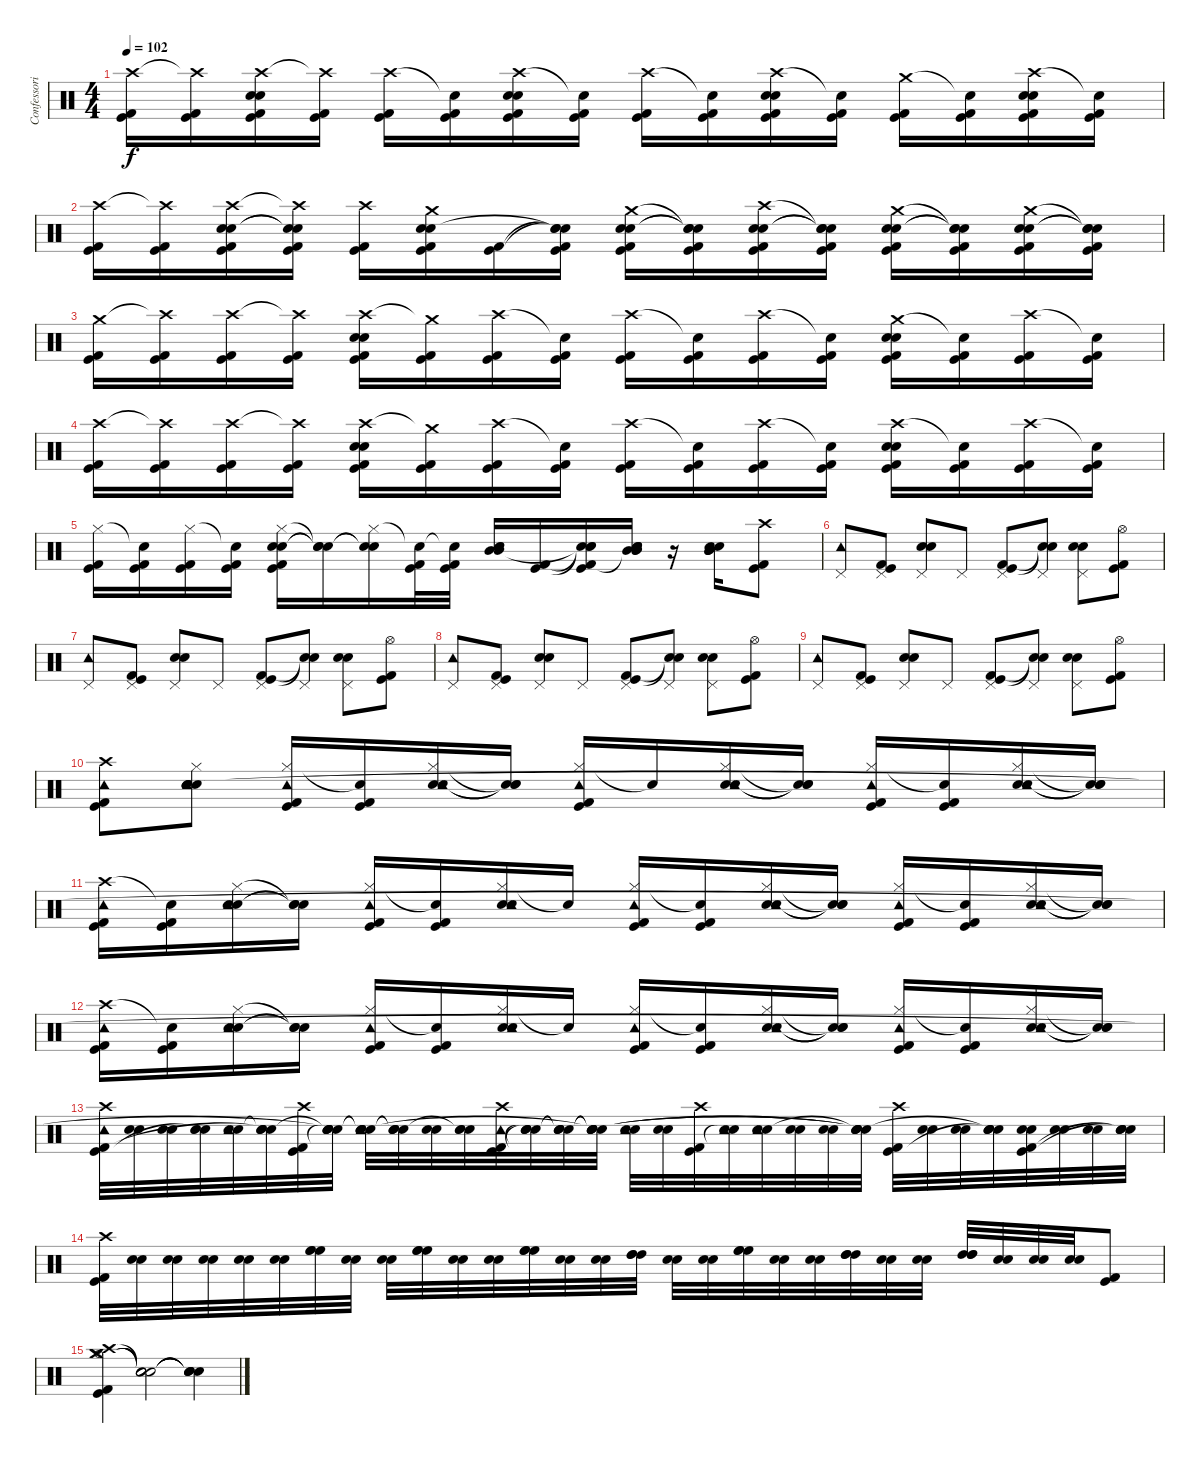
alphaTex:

\track ("Confessori" "Confessori") {instrument percussion}
\staff {score}
\articulation defaults
\ts (4 4)
\tempo 102
\clef neutral
\ks c
("Crash high (hit)" "Kick (hit) 2" "Kick (hit)").16{dy f} ("Crash high (hit)"{t} "Kick (hit) 2" "Kick (hit)").16 ("Crash high (hit)" "Electric Snare (hit)" "Snare (hit) 2" "Kick (hit) 2" "Kick (hit)").16 ("Crash high (hit)"{t} "Kick (hit) 2" "Kick (hit)").16 ("Crash high (hit)" "Kick (hit) 2" "Kick (hit)").16 ("Snare (hit)"{t} "Kick (hit) 2" "Kick (hit)").16 ("Crash high (hit)" "Electric Snare (hit)" "Snare (hit) 2" "Kick (hit) 2" "Kick (hit)").16 ("Snare (hit)"{t} "Kick (hit) 2" "Kick (hit)").16 ("Crash high (hit)" "Kick (hit) 2" "Kick (hit)").16 ("Snare (hit)"{t} "Kick (hit) 2" "Kick (hit)").16 ("Crash high (hit)" "Electric Snare (hit)" "Snare (hit) 2" "Kick (hit) 2" "Kick (hit)").16 ("Snare (hit)"{t} "Kick (hit) 2" "Kick (hit)").16 ("Crash medium (hit)" "Kick (hit) 2" "Kick (hit)").16 ("Snare (hit)"{t} "Kick (hit) 2" "Kick (hit)").16 ("Crash high (hit)" "Electric Snare (hit)" "Snare (hit) 2" "Kick (hit) 2" "Kick (hit)").16 ("Snare (hit)"{t} "Kick (hit) 2" "Kick (hit)").16 |
("Crash high (hit)" "Kick (hit) 2" "Kick (hit)").16 ("Crash high (hit)"{t} "Kick (hit) 2" "Kick (hit)").16 ("Crash high (hit)" "Electric Snare (hit)" "Snare (hit) 2" "Kick (hit) 2" "Kick (hit)").16 ("Crash high (hit)"{t} "Snare (hit)"{t} "Snare (hit)"{t} "Kick (hit) 2" "Kick (hit)").16 ("Crash high (hit)" "Kick (hit) 2" "Kick (hit)").16 ("Crash medium (hit)" "Electric Snare (hit)" "Snare (hit) 2" "Kick (hit) 2" "Kick (hit)").16 ("Kick (hit) 2" "Kick (hit)").16 ("Snare (hit)"{t} "Snare (hit)"{t} "Snare (hit)"{t} "Kick (hit) 2" "Kick (hit)").16 ("Crash medium (hit)" "Electric Snare (hit)" "Snare (hit) 2" "Kick (hit) 2" "Kick (hit)").16 ("Snare (hit)"{t} "Snare (hit)"{t} "Snare (hit)"{t} "Kick (hit) 2" "Kick (hit)").16 ("Crash high (hit)" "Electric Snare (hit)" "Snare (hit) 2" "Kick (hit) 2" "Kick (hit)").16 ("Snare (hit)"{t} "Snare (hit)"{t} "Snare (hit)"{t} "Kick (hit) 2" "Kick (hit)").16 ("Crash medium (hit)" "Electric Snare (hit)" "Snare (hit) 2" "Kick (hit) 2" "Kick (hit)").16 ("Snare (hit)"{t} "Snare (hit)"{t} "Snare (hit)"{t} "Kick (hit) 2" "Kick (hit)").16 ("Crash medium (hit)" "Electric Snare (hit)" "Snare (hit) 2" "Kick (hit) 2" "Kick (hit)").16 ("Snare (hit)"{t} "Snare (hit)"{t} "Snare (hit)"{t} "Kick (hit) 2" "Kick (hit)").16 |
("Crash medium (hit)" "Kick (hit) 2" "Kick (hit)").16 ("Crash high (hit)"{t} "Kick (hit) 2" "Kick (hit)").16 ("Crash high (hit)" "Kick (hit) 2" "Kick (hit)").16 ("Crash high (hit)"{t} "Kick (hit) 2" "Kick (hit)").16 ("Crash high (hit)" "Electric Snare (hit)" "Snare (hit) 2" "Kick (hit) 2" "Kick (hit)").16 ("Crash medium (hit)"{t} "Kick (hit) 2" "Kick (hit)").16 ("Crash high (hit)" "Kick (hit) 2" "Kick (hit)").16 ("Snare (hit)"{t} "Kick (hit) 2" "Kick (hit)").16 ("Crash high (hit)" "Kick (hit) 2" "Kick (hit)").16 ("Snare (hit)"{t} "Kick (hit) 2" "Kick (hit)").16 ("Crash high (hit)" "Kick (hit) 2" "Kick (hit)").16 ("Snare (hit)"{t} "Kick (hit) 2" "Kick (hit)").16 ("Crash medium (hit)" "Electric Snare (hit)" "Snare (hit) 2" "Kick (hit) 2" "Kick (hit)").16 ("Snare (hit)"{t} "Kick (hit) 2" "Kick (hit)").16 ("Crash high (hit)" "Kick (hit) 2" "Kick (hit)").16 ("Snare (hit)"{t} "Kick (hit) 2" "Kick (hit)").16 |
("Crash high (hit)" "Kick (hit) 2" "Kick (hit)").16 ("Crash high (hit)"{t} "Kick (hit) 2" "Kick (hit)").16 ("Crash high (hit)" "Kick (hit) 2" "Kick (hit)").16 ("Crash high (hit)"{t} "Kick (hit) 2" "Kick (hit)").16 ("Crash high (hit)" "Electric Snare (hit)" "Snare (hit) 2" "Kick (hit) 2" "Kick (hit)").16 ("Crash medium (hit)"{t} "Kick (hit) 2" "Kick (hit)").16 ("Crash high (hit)" "Kick (hit) 2" "Kick (hit)").16 ("Snare (hit)"{t} "Kick (hit) 2" "Kick (hit)").16 ("Crash high (hit)" "Kick (hit) 2" "Kick (hit)").16 ("Snare (hit)"{t} "Kick (hit) 2" "Kick (hit)").16 ("Crash high (hit)" "Kick (hit) 2" "Kick (hit)").16 ("Snare (hit)"{t} "Kick (hit) 2" "Kick (hit)").16 ("Crash high (hit)" "Electric Snare (hit)" "Snare (hit) 2" "Kick (hit) 2" "Kick (hit)").16 ("Snare (hit)"{t} "Kick (hit) 2" "Kick (hit)").16 ("Crash high (hit)" "Kick (hit) 2" "Kick (hit)").16 ("Snare (hit)"{t} "Kick (hit) 2" "Kick (hit)").16 |
("Hi-Hat (closed)" "Kick (hit)" "Kick (hit) 2").16 ("Snare (hit)"{t} "Kick (hit)" "Kick (hit) 2").16 ("Hi-Hat (closed)" "Kick (hit)" "Kick (hit) 2").16 ("Snare (hit)"{t} "Kick (hit)" "Kick (hit) 2").16 ("Hi-Hat (closed)" "Electric Snare (hit)" "Snare (hit) 2" "Kick (hit)" "Kick (hit) 2").16 ("Snare (hit)"{t} "Snare (hit)"{t} "Snare (hit)"{t}).16 ("Hi-Hat (closed)" "Snare (hit)"{t} "Snare (hit)"{t}).16 ("Snare (hit)"{t} "Kick (hit) 2" "Kick (hit)").32 ("Snare (hit)"{t} "Kick (hit) 2" "Kick (hit)").32 ("Electric Snare (hit)" "Snare (hit) 2" "Mid Tom (hit)" "Mid Tom (hit)").16 ("Kick (hit) 2" "Kick (hit)").16 ("Snare (hit)"{t} "Snare (hit)"{t} "Snare (hit)"{t} "Kick (hit)" "Kick (hit) 2").16 ("Mid Tom (hit)" "Electric Snare (hit)" "Snare (hit) 2" "Mid Tom (hit)" "Mid Tom (hit)"{t} "Snare (hit)").16 r.16 ("Electric Snare (hit)" "Snare (hit) 2" "Mid Tom (hit)" "Mid Tom (hit)" "Mid Tom (hit)").16 ("Crash high (hit)" "Kick (hit) 2" "Kick (hit)").8 |
("Pedal Hi-Hat (hit)" "Tambourine (hit)").8 ("Pedal Hi-Hat (hit)" "Kick (hit) 2" "Kick (hit)").8 ("Pedal Hi-Hat (hit)" "Electric Snare (hit)" "Snare (hit) 2").8 "Pedal Hi-Hat (hit)".8 ("Pedal Hi-Hat (hit)" "Kick (hit) 2" "Kick (hit)").8 ("Pedal Hi-Hat (hit)" "Snare (hit)"{t} "Snare (hit)"{t}).8 ("Pedal Hi-Hat (hit)" "Electric Snare (hit)" "Snare (hit) 2").8 ("Hi-Hat (open)" "Kick (hit)" "Kick (hit) 2").8 |
("Pedal Hi-Hat (hit)" "Tambourine (hit)").8 ("Pedal Hi-Hat (hit)" "Kick (hit) 2" "Kick (hit)").8 ("Pedal Hi-Hat (hit)" "Electric Snare (hit)" "Snare (hit) 2").8 "Pedal Hi-Hat (hit)".8 ("Pedal Hi-Hat (hit)" "Kick (hit) 2" "Kick (hit)").8 ("Pedal Hi-Hat (hit)" "Snare (hit)"{t} "Snare (hit)"{t}).8 ("Pedal Hi-Hat (hit)" "Electric Snare (hit)" "Snare (hit) 2").8 ("Hi-Hat (open)" "Kick (hit)" "Kick (hit) 2").8 |
("Pedal Hi-Hat (hit)" "Tambourine (hit)").8 ("Pedal Hi-Hat (hit)" "Kick (hit) 2" "Kick (hit)").8 ("Pedal Hi-Hat (hit)" "Electric Snare (hit)" "Snare (hit) 2").8 "Pedal Hi-Hat (hit)".8 ("Pedal Hi-Hat (hit)" "Kick (hit) 2" "Kick (hit)").8 ("Pedal Hi-Hat (hit)" "Snare (hit)"{t} "Snare (hit)"{t}).8 ("Pedal Hi-Hat (hit)" "Electric Snare (hit)" "Snare (hit) 2").8 ("Hi-Hat (open)" "Kick (hit)" "Kick (hit) 2").8 |
("Pedal Hi-Hat (hit)" "Tambourine (hit)").8 ("Pedal Hi-Hat (hit)" "Kick (hit) 2" "Kick (hit)").8 ("Pedal Hi-Hat (hit)" "Electric Snare (hit)" "Snare (hit) 2").8 "Pedal Hi-Hat (hit)".8 ("Pedal Hi-Hat (hit)" "Kick (hit) 2" "Kick (hit)").8 ("Pedal Hi-Hat (hit)" "Snare (hit)"{t} "Snare (hit)"{t}).8 ("Pedal Hi-Hat (hit)" "Electric Snare (hit)" "Snare (hit) 2").8 ("Hi-Hat (open)" "Kick (hit)" "Kick (hit) 2").8 |
("Crash high (hit)" "Tambourine (hit)" "Kick (hit) 2" "Kick (hit)").8 ("Hi-Hat (closed)" "Electric Snare (hit)" "Snare (hit) 2" "Tambourine (hit)" "Snare (hit)" "Snare (hit)").8 ("Hi-Hat (closed)" "Tambourine (hit)" "Kick (hit) 2" "Kick (hit)").16 ("Snare (hit)"{t} "Kick (hit) 2" "Kick (hit)").16 ("Hi-Hat (closed)" "Electric Snare (hit)" "Snare (hit) 2" "Tambourine (hit)").16 ("Snare (hit)"{t} "Snare (hit)"{t} "Snare (hit)"{t}).16 ("Hi-Hat (closed)" "Tambourine (hit)" "Kick (hit) 2" "Kick (hit)").16 "Snare (hit)"{t}.16 ("Hi-Hat (closed)" "Electric Snare (hit)" "Snare (hit) 2" "Tambourine (hit)").16 ("Snare (hit)"{t} "Snare (hit)"{t} "Snare (hit)"{t}).16 ("Hi-Hat (closed)" "Tambourine (hit)" "Kick (hit) 2" "Kick (hit)").16 ("Snare (hit)"{t} "Kick (hit) 2" "Kick (hit)").16 ("Hi-Hat (closed)" "Electric Snare (hit)" "Snare (hit) 2" "Tambourine (hit)").16 ("Snare (hit)"{t} "Snare (hit)"{t} "Snare (hit)"{t}).16 |
("Crash high (hit)" "Tambourine (hit)" "Kick (hit) 2" "Kick (hit)").16 ("Snare (hit)"{t} "Kick (hit) 2" "Kick (hit)").16 ("Hi-Hat (closed)" "Electric Snare (hit)" "Snare (hit) 2" "Tambourine (hit)").16 ("Snare (hit)"{t} "Snare (hit)"{t} "Snare (hit)"{t}).16 ("Hi-Hat (closed)" "Tambourine (hit)" "Kick (hit) 2" "Kick (hit)").16 ("Snare (hit)"{t} "Kick (hit) 2" "Kick (hit)").16 ("Hi-Hat (closed)" "Electric Snare (hit)" "Snare (hit) 2" "Tambourine (hit)").16 "Snare (hit)"{t}.16 ("Hi-Hat (closed)" "Tambourine (hit)" "Kick (hit) 2" "Kick (hit)").16 ("Snare (hit)"{t} "Kick (hit) 2" "Kick (hit)").16 ("Hi-Hat (closed)" "Electric Snare (hit)" "Snare (hit) 2" "Tambourine (hit)").16 ("Snare (hit)"{t} "Snare (hit)"{t} "Snare (hit)"{t}).16 ("Hi-Hat (closed)" "Tambourine (hit)" "Kick (hit) 2" "Kick (hit)").16 ("Snare (hit)"{t} "Kick (hit) 2" "Kick (hit)").16 ("Hi-Hat (closed)" "Electric Snare (hit)" "Snare (hit) 2" "Tambourine (hit)").16 ("Snare (hit)"{t} "Snare (hit)"{t} "Snare (hit)"{t}).16 |
("Crash high (hit)" "Tambourine (hit)" "Kick (hit) 2" "Kick (hit)").16 ("Snare (hit)"{t} "Kick (hit) 2" "Kick (hit)").16 ("Hi-Hat (closed)" "Electric Snare (hit)" "Snare (hit) 2" "Tambourine (hit)").16 ("Snare (hit)"{t} "Snare (hit)"{t} "Snare (hit)"{t}).16 ("Hi-Hat (closed)" "Tambourine (hit)" "Kick (hit) 2" "Kick (hit)").16 ("Snare (hit)"{t} "Kick (hit) 2" "Kick (hit)").16 ("Hi-Hat (closed)" "Electric Snare (hit)" "Snare (hit) 2" "Tambourine (hit)").16 "Snare (hit)"{t}.16 ("Hi-Hat (closed)" "Tambourine (hit)" "Kick (hit) 2" "Kick (hit)").16 ("Snare (hit)"{t} "Kick (hit) 2" "Kick (hit)").16 ("Hi-Hat (closed)" "Electric Snare (hit)" "Snare (hit) 2" "Tambourine (hit)").16 ("Snare (hit)"{t} "Snare (hit)"{t} "Snare (hit)"{t}).16 ("Hi-Hat (closed)" "Tambourine (hit)" "Kick (hit) 2" "Kick (hit)").16 ("Snare (hit)"{t} "Kick (hit) 2" "Kick (hit)").16 ("Hi-Hat (closed)" "Electric Snare (hit)" "Snare (hit) 2" "Tambourine (hit)").16 ("Snare (hit)"{t} "Snare (hit)"{t} "Snare (hit)"{t}).16 |
("Crash high (hit)" "Tambourine (hit)" "Kick (hit)" "Kick (hit) 2").32 ("Electric Snare (hit)" "Snare (hit) 2").32 ("Electric Snare (hit)" "Snare (hit) 2").32 ("Electric Snare (hit)" "Snare (hit) 2" "Snare (hit)"{t}).32 ("Electric Snare (hit)" "Snare (hit) 2" "Tambourine (hit)").32 ("Electric Snare (hit)" "Snare (hit) 2" "Snare (hit)"{t} "Snare (hit)"{t}).32 ("Crash high (hit)" "Kick (hit)" "Kick (hit) 2").32 ("Electric Snare (hit)" "Snare (hit) 2" "Snare (hit)"{t} "Snare (hit)"{t} "Snare (hit)"{t}).32 ("Electric Snare (hit)" "Snare (hit) 2" "Tambourine (hit)" "Snare (hit)"{t} "Snare (hit)"{t}).32 ("Electric Snare (hit)" "Snare (hit) 2" "Snare (hit)"{t} "Snare (hit)"{t}).32 ("Electric Snare (hit)" "Snare (hit) 2").32 ("Electric Snare (hit)" "Snare (hit) 2" "Snare (hit)"{t}).32 ("Crash high (hit)" "Tambourine (hit)" "Kick (hit) 2" "Kick (hit)").32 ("Electric Snare (hit)" "Snare (hit) 2" "Snare (hit)"{t} "Snare (hit)"{t}).32 ("Electric Snare (hit)" "Snare (hit) 2" "Snare (hit)"{t} "Snare (hit)"{t}).32 ("Electric Snare (hit)" "Snare (hit) 2" "Snare (hit)"{t} "Snare (hit)"{t} "Snare (hit)"{t}).32 ("Electric Snare (hit)" "Snare (hit) 2" "Tambourine (hit)").32 ("Electric Snare (hit)" "Snare (hit) 2").32 ("Crash high (hit)" "Kick (hit)" "Kick (hit) 2").32 ("Electric Snare (hit)" "Snare (hit) 2" "Tambourine (hit)"{t}).32 ("Electric Snare (hit)" "Snare (hit) 2" "Tambourine (hit)").32 ("Electric Snare (hit)" "Snare (hit) 2").32 ("Electric Snare (hit)" "Snare (hit) 2").32 ("Electric Snare (hit)" "Snare (hit) 2" "Snare (hit)"{t} "Snare (hit)"{t} "Snare (hit)"{t}).32 ("Crash high (hit)" "Kick (hit) 2" "Kick (hit)").32 ("Electric Snare (hit)" "Snare (hit) 2").32 ("Electric Snare (hit)" "Snare (hit) 2").32 ("Electric Snare (hit)" "Snare (hit) 2" "Snare (hit)"{t} "Snare (hit)"{t}).32 ("Electric Snare (hit)" "Snare (hit) 2" "Kick (hit)" "Kick (hit) 2").32 ("Electric Snare (hit)" "Snare (hit) 2").32 ("Electric Snare (hit)" "Snare (hit) 2").32 ("Electric Snare (hit)" "Snare (hit) 2" "Snare (hit)"{t} "Snare (hit)"{t}).32 |
("Crash high (hit)" "Kick (hit) 2" "Kick (hit)").32 ("Electric Snare (hit)" "Snare (hit) 2").32 ("Electric Snare (hit)" "Snare (hit) 2").32 ("Electric Snare (hit)" "Snare (hit) 2").32 ("Electric Snare (hit)" "Snare (hit) 2").32 ("Electric Snare (hit)" "Snare (hit) 2").32 ("High Floor Tom (hit)" "High Floor Tom (hit)" "High Floor Tom (hit)").32 ("Electric Snare (hit)" "Snare (hit) 2").32 ("Electric Snare (hit)" "Snare (hit) 2").32 ("High Floor Tom (hit)" "High Floor Tom (hit)" "High Floor Tom (hit)").32 ("Electric Snare (hit)" "Snare (hit) 2").32 ("Electric Snare (hit)" "Snare (hit) 2").32 ("High Floor Tom (hit)" "High Floor Tom (hit)" "High Floor Tom (hit)").32 ("Electric Snare (hit)" "Snare (hit) 2").32 ("Electric Snare (hit)" "Snare (hit) 2").32 ("High Tom (hit)" "High Tom (hit)" "High Tom (hit)").32 ("Electric Snare (hit)" "Snare (hit) 2").32 ("Electric Snare (hit)" "Snare (hit) 2").32 ("High Floor Tom (hit)" "High Floor Tom (hit)" "High Floor Tom (hit)").32 ("Electric Snare (hit)" "Snare (hit) 2").32 ("Electric Snare (hit)" "Snare (hit) 2").32 ("High Tom (hit)" "High Tom (hit)" "High Tom (hit)").32 ("Electric Snare (hit)" "Snare (hit) 2").32 ("Electric Snare (hit)" "Snare (hit) 2").32 ("High Tom (hit)" "High Tom (hit)" "High Tom (hit)").32 ("Electric Snare (hit)" "Snare (hit) 2").32 ("Electric Snare (hit)" "Snare (hit) 2").32 ("Electric Snare (hit)" "Snare (hit) 2").32 ("Kick (hit) 2" "Kick (hit)").8 |
("Hi-Hat (open)" "Crash medium (hit)" "Crash high (hit)" "Crash medium (hit)" "Kick (hit)" "Kick (hit) 2").4 ("Snare (hit)"{t} "Snare (hit)"{t} "Snare (hit)"{t} "Snare (hit)"{t}).2 ("Snare (hit)"{t} "Snare (hit)"{t} "Snare (hit)"{t} "Snare (hit)"{t}).4
